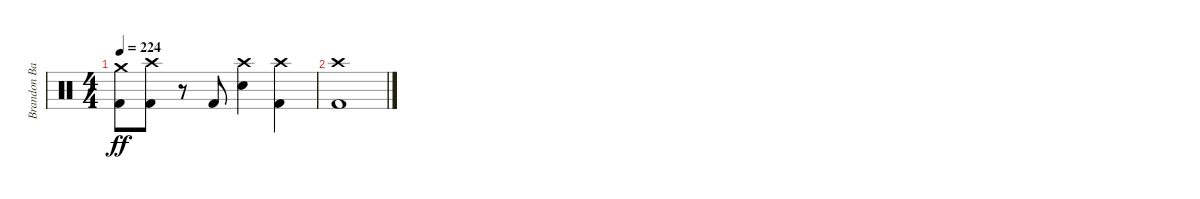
\track ("Brandon Barnes" "Brandon Ba") {instrument percussion}
\staff {score}
\articulation defaults
\ts (4 4)
\tempo 224
\clef neutral
\ks c
("Kick (hit) 2" "Crash medium (hit)").8{dy ff} ("Kick (hit) 2" "Crash high (hit)").8 r.8 "Kick (hit) 2".8 ("Snare (hit) 2" "Crash high (hit)").4 ("Kick (hit) 2" "Crash high (hit)").4 |
("Kick (hit) 2" "Crash high (hit)").1
